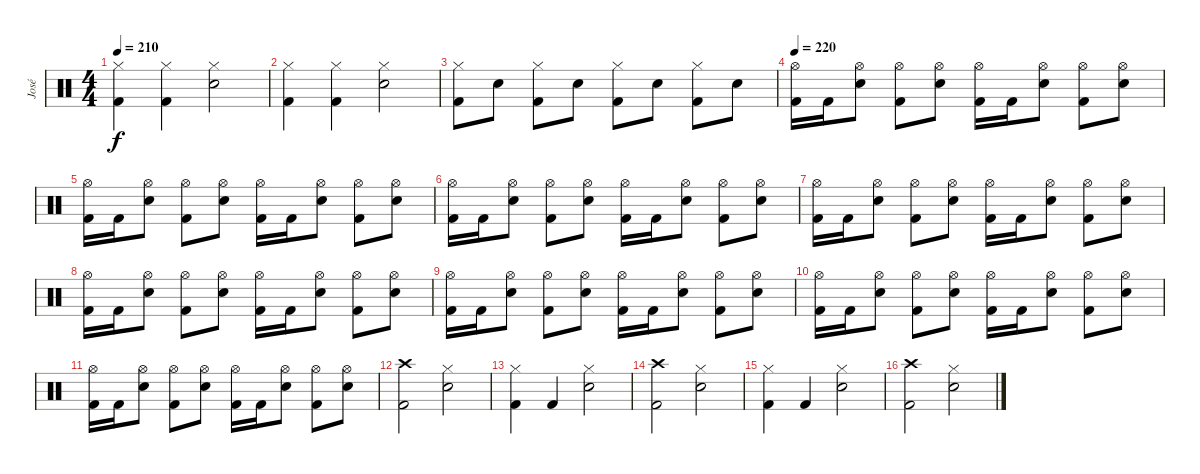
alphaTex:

\track ("José" "José") {instrument percussion}
\staff {score}
\articulation defaults
\ts (4 4)
\tempo 210
\clef neutral
\ks c
("Hi-Hat (closed)" "Kick (hit) 2").4{dy f} ("Hi-Hat (closed)" "Kick (hit) 2").4 ("Hi-Hat (closed)" "Electric Snare (hit)").2 |
("Hi-Hat (closed)" "Kick (hit) 2").4 ("Hi-Hat (closed)" "Kick (hit) 2").4 ("Hi-Hat (closed)" "Electric Snare (hit)").2 |
("Hi-Hat (closed)" "Kick (hit) 2").8 "Electric Snare (hit)".8 ("Hi-Hat (closed)" "Kick (hit) 2").8 "Electric Snare (hit)".8 ("Hi-Hat (closed)" "Kick (hit) 2").8 "Electric Snare (hit)".8 ("Hi-Hat (closed)" "Kick (hit) 2").8 "Electric Snare (hit)".8 |
\tempo 220
("Hi-Hat (open)" "Kick (hit) 2").16 "Kick (hit) 2".16 ("Hi-Hat (open)" "Electric Snare (hit)").8 ("Hi-Hat (open)" "Kick (hit) 2").8 ("Hi-Hat (open)" "Electric Snare (hit)").8 ("Hi-Hat (open)" "Kick (hit) 2").16 "Kick (hit) 2".16 ("Hi-Hat (open)" "Electric Snare (hit)").8 ("Hi-Hat (open)" "Kick (hit) 2").8 ("Hi-Hat (open)" "Electric Snare (hit)").8 |
("Hi-Hat (open)" "Kick (hit) 2").16 "Kick (hit) 2".16 ("Hi-Hat (open)" "Electric Snare (hit)").8 ("Hi-Hat (open)" "Kick (hit) 2").8 ("Hi-Hat (open)" "Electric Snare (hit)").8 ("Hi-Hat (open)" "Kick (hit) 2").16 "Kick (hit) 2".16 ("Hi-Hat (open)" "Electric Snare (hit)").8 ("Hi-Hat (open)" "Kick (hit) 2").8 ("Hi-Hat (open)" "Electric Snare (hit)").8 |
("Hi-Hat (open)" "Kick (hit) 2").16 "Kick (hit) 2".16 ("Hi-Hat (open)" "Electric Snare (hit)").8 ("Hi-Hat (open)" "Kick (hit) 2").8 ("Hi-Hat (open)" "Electric Snare (hit)").8 ("Hi-Hat (open)" "Kick (hit) 2").16 "Kick (hit) 2".16 ("Hi-Hat (open)" "Electric Snare (hit)").8 ("Hi-Hat (open)" "Kick (hit) 2").8 ("Hi-Hat (open)" "Electric Snare (hit)").8 |
("Hi-Hat (open)" "Kick (hit) 2").16 "Kick (hit) 2".16 ("Hi-Hat (open)" "Electric Snare (hit)").8 ("Hi-Hat (open)" "Kick (hit) 2").8 ("Hi-Hat (open)" "Electric Snare (hit)").8 ("Hi-Hat (open)" "Kick (hit) 2").16 "Kick (hit) 2".16 ("Hi-Hat (open)" "Electric Snare (hit)").8 ("Hi-Hat (open)" "Kick (hit) 2").8 ("Hi-Hat (open)" "Electric Snare (hit)").8 |
("Hi-Hat (open)" "Kick (hit) 2").16 "Kick (hit) 2".16 ("Hi-Hat (open)" "Electric Snare (hit)").8 ("Hi-Hat (open)" "Kick (hit) 2").8 ("Hi-Hat (open)" "Electric Snare (hit)").8 ("Hi-Hat (open)" "Kick (hit) 2").16 "Kick (hit) 2".16 ("Hi-Hat (open)" "Electric Snare (hit)").8 ("Hi-Hat (open)" "Kick (hit) 2").8 ("Hi-Hat (open)" "Electric Snare (hit)").8 |
("Hi-Hat (open)" "Kick (hit) 2").16 "Kick (hit) 2".16 ("Hi-Hat (open)" "Electric Snare (hit)").8 ("Hi-Hat (open)" "Kick (hit) 2").8 ("Hi-Hat (open)" "Electric Snare (hit)").8 ("Hi-Hat (open)" "Kick (hit) 2").16 "Kick (hit) 2".16 ("Hi-Hat (open)" "Electric Snare (hit)").8 ("Hi-Hat (open)" "Kick (hit) 2").8 ("Hi-Hat (open)" "Electric Snare (hit)").8 |
("Hi-Hat (open)" "Kick (hit) 2").16 "Kick (hit) 2".16 ("Hi-Hat (open)" "Electric Snare (hit)").8 ("Hi-Hat (open)" "Kick (hit) 2").8 ("Hi-Hat (open)" "Electric Snare (hit)").8 ("Hi-Hat (open)" "Kick (hit) 2").16 "Kick (hit) 2".16 ("Hi-Hat (open)" "Electric Snare (hit)").8 ("Hi-Hat (open)" "Kick (hit) 2").8 ("Hi-Hat (open)" "Electric Snare (hit)").8 |
("Hi-Hat (open)" "Kick (hit) 2").16 "Kick (hit) 2".16 ("Hi-Hat (open)" "Electric Snare (hit)").8 ("Hi-Hat (open)" "Kick (hit) 2").8 ("Hi-Hat (open)" "Electric Snare (hit)").8 ("Hi-Hat (open)" "Kick (hit) 2").16 "Kick (hit) 2".16 ("Hi-Hat (open)" "Electric Snare (hit)").8 ("Hi-Hat (open)" "Kick (hit) 2").8 ("Hi-Hat (open)" "Electric Snare (hit)").8 |
("Crash high (hit)" "Kick (hit) 2").2 ("Hi-Hat (closed)" "Electric Snare (hit)").2 |
("Hi-Hat (closed)" "Kick (hit) 2").4 "Kick (hit) 2".4 ("Hi-Hat (closed)" "Electric Snare (hit)").2 |
("Crash high (hit)" "Kick (hit) 2").2 ("Hi-Hat (closed)" "Electric Snare (hit)").2 |
("Hi-Hat (closed)" "Kick (hit) 2").4 "Kick (hit) 2".4 ("Hi-Hat (closed)" "Electric Snare (hit)").2 |
("Crash high (hit)" "Kick (hit) 2").2 ("Hi-Hat (closed)" "Electric Snare (hit)").2
